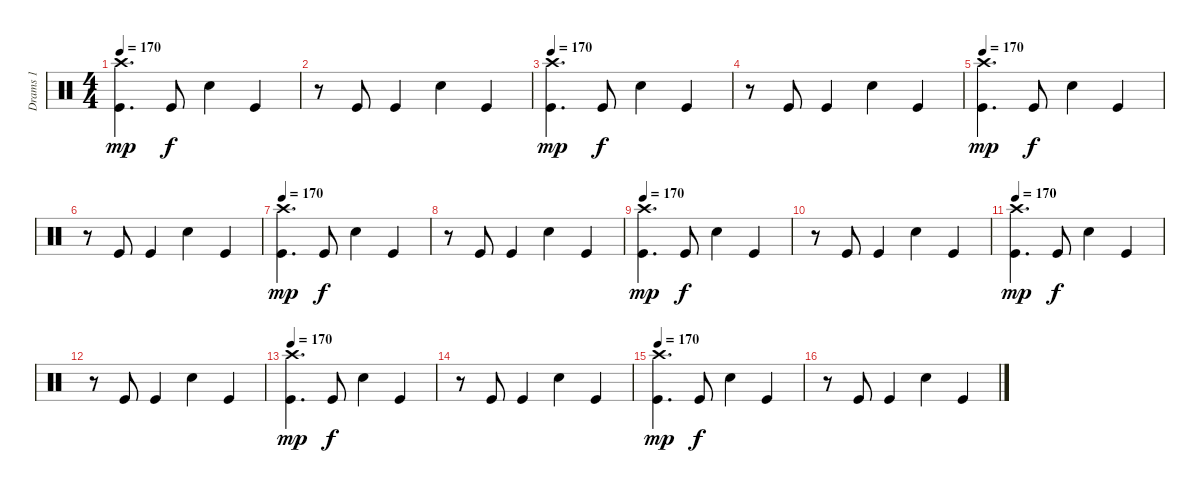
\track ("Drams 1" "Drams 1") {instrument percussion}
\staff {score}
\articulation defaults
\ts (4 4)
\tempo 170
\clef neutral
\ks c
("Crash high (hit)" "Kick (hit)").4{d dy mp} "Kick (hit)".8{dy f} "Snare (hit) 2".4 "Kick (hit)".4 |
r.8 "Kick (hit)".8 "Kick (hit)".4 "Snare (hit) 2".4 "Kick (hit)".4 |
\tempo 170
("Crash high (hit)" "Kick (hit)").4{d dy mp} "Kick (hit)".8{dy f} "Snare (hit) 2".4 "Kick (hit)".4 |
r.8 "Kick (hit)".8 "Kick (hit)".4 "Snare (hit) 2".4 "Kick (hit)".4 |
\tempo 170
("Crash high (hit)" "Kick (hit)").4{d dy mp} "Kick (hit)".8{dy f} "Snare (hit) 2".4 "Kick (hit)".4 |
r.8 "Kick (hit)".8 "Kick (hit)".4 "Snare (hit) 2".4 "Kick (hit)".4 |
\tempo 170
("Crash high (hit)" "Kick (hit)").4{d dy mp} "Kick (hit)".8{dy f} "Snare (hit) 2".4 "Kick (hit)".4 |
r.8 "Kick (hit)".8 "Kick (hit)".4 "Snare (hit) 2".4 "Kick (hit)".4 |
\tempo 170
("Crash high (hit)" "Kick (hit)").4{d dy mp} "Kick (hit)".8{dy f} "Snare (hit) 2".4 "Kick (hit)".4 |
r.8 "Kick (hit)".8 "Kick (hit)".4 "Snare (hit) 2".4 "Kick (hit)".4 |
\tempo 170
("Crash high (hit)" "Kick (hit)").4{d dy mp} "Kick (hit)".8{dy f} "Snare (hit) 2".4 "Kick (hit)".4 |
r.8 "Kick (hit)".8 "Kick (hit)".4 "Snare (hit) 2".4 "Kick (hit)".4 |
\tempo 170
("Crash high (hit)" "Kick (hit)").4{d dy mp} "Kick (hit)".8{dy f} "Snare (hit) 2".4 "Kick (hit)".4 |
r.8 "Kick (hit)".8 "Kick (hit)".4 "Snare (hit) 2".4 "Kick (hit)".4 |
\tempo 170
("Crash high (hit)" "Kick (hit)").4{d dy mp} "Kick (hit)".8{dy f} "Snare (hit) 2".4 "Kick (hit)".4 |
r.8 "Kick (hit)".8 "Kick (hit)".4 "Snare (hit) 2".4 "Kick (hit)".4
